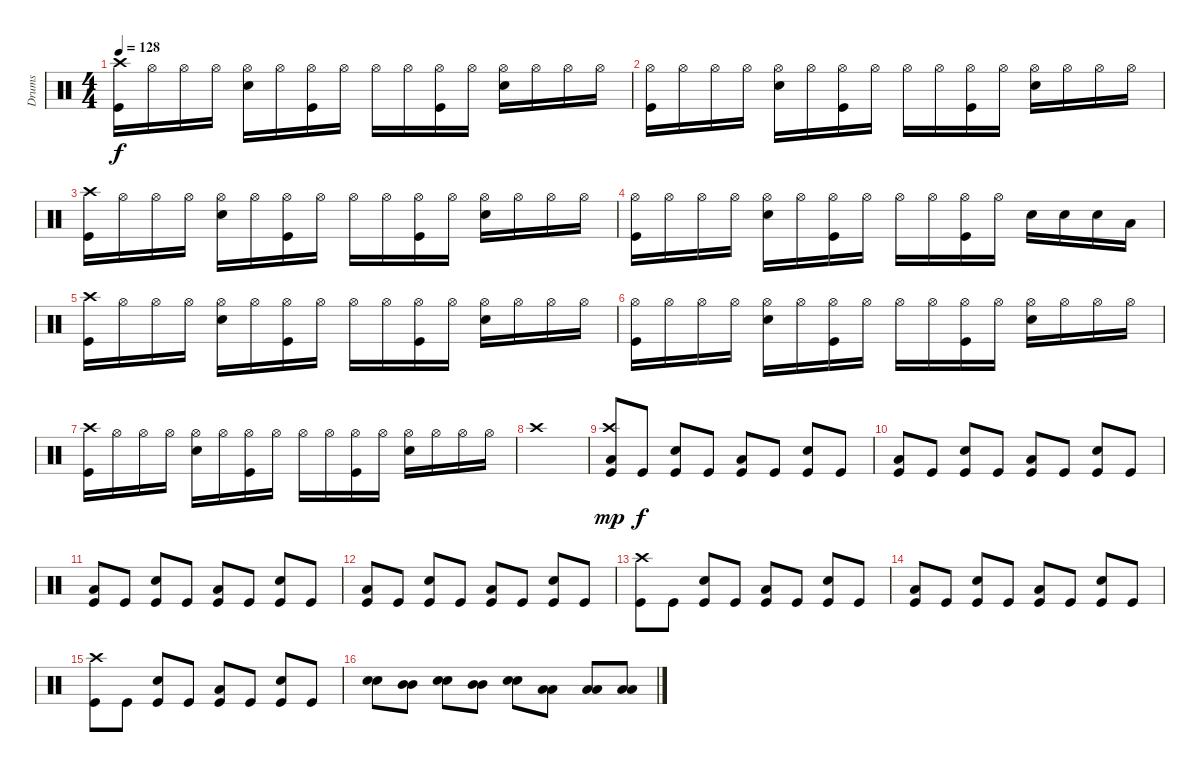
\track ("Drums" "Drums") {instrument percussion}
\staff {score}
\articulation defaults
\ts (4 4)
\tempo 128
\clef neutral
\ks c
("Kick (hit)" "Crash high (hit)").16{dy f} "Hi-Hat (open)".16 "Hi-Hat (open)".16 "Hi-Hat (open)".16 ("Snare (hit) 2" "Hi-Hat (open)").16 "Hi-Hat (open)".16 ("Kick (hit)" "Hi-Hat (open)").16 "Hi-Hat (open)".16 "Hi-Hat (open)".16 "Hi-Hat (open)".16 ("Kick (hit)" "Hi-Hat (open)").16 "Hi-Hat (open)".16 ("Snare (hit) 2" "Hi-Hat (open)").16 "Hi-Hat (open)".16 "Hi-Hat (open)".16 "Hi-Hat (open)".16 |
("Kick (hit)" "Hi-Hat (open)").16 "Hi-Hat (open)".16 "Hi-Hat (open)".16 "Hi-Hat (open)".16 ("Snare (hit) 2" "Hi-Hat (open)").16 "Hi-Hat (open)".16 ("Kick (hit)" "Hi-Hat (open)").16 "Hi-Hat (open)".16 "Hi-Hat (open)".16 "Hi-Hat (open)".16 ("Kick (hit)" "Hi-Hat (open)").16 "Hi-Hat (open)".16 ("Snare (hit) 2" "Hi-Hat (open)").16 "Hi-Hat (open)".16 "Hi-Hat (open)".16 "Hi-Hat (open)".16 |
("Kick (hit)" "Crash high (hit)").16 "Hi-Hat (open)".16 "Hi-Hat (open)".16 "Hi-Hat (open)".16 ("Snare (hit) 2" "Hi-Hat (open)").16 "Hi-Hat (open)".16 ("Kick (hit)" "Hi-Hat (open)").16 "Hi-Hat (open)".16 "Hi-Hat (open)".16 "Hi-Hat (open)".16 ("Kick (hit)" "Hi-Hat (open)").16 "Hi-Hat (open)".16 ("Snare (hit) 2" "Hi-Hat (open)").16 "Hi-Hat (open)".16 "Hi-Hat (open)".16 "Hi-Hat (open)".16 |
("Kick (hit)" "Hi-Hat (open)").16 "Hi-Hat (open)".16 "Hi-Hat (open)".16 "Hi-Hat (open)".16 ("Snare (hit) 2" "Hi-Hat (open)").16 "Hi-Hat (open)".16 ("Kick (hit)" "Hi-Hat (open)").16 "Hi-Hat (open)".16 "Hi-Hat (open)".16 "Hi-Hat (open)".16 ("Kick (hit)" "Hi-Hat (open)").16 "Hi-Hat (open)".16 "Snare (hit) 2".16 "Electric Snare (hit)".16 "Electric Snare (hit)".16 "Low Tom (hit)".16 |
("Kick (hit)" "Crash high (hit)").16 "Hi-Hat (open)".16 "Hi-Hat (open)".16 "Hi-Hat (open)".16 ("Snare (hit) 2" "Hi-Hat (open)").16 "Hi-Hat (open)".16 ("Kick (hit)" "Hi-Hat (open)").16 "Hi-Hat (open)".16 "Hi-Hat (open)".16 "Hi-Hat (open)".16 ("Kick (hit)" "Hi-Hat (open)").16 "Hi-Hat (open)".16 ("Snare (hit) 2" "Hi-Hat (open)").16 "Hi-Hat (open)".16 "Hi-Hat (open)".16 "Hi-Hat (open)".16 |
("Kick (hit)" "Hi-Hat (open)").16 "Hi-Hat (open)".16 "Hi-Hat (open)".16 "Hi-Hat (open)".16 ("Snare (hit) 2" "Hi-Hat (open)").16 "Hi-Hat (open)".16 ("Kick (hit)" "Hi-Hat (open)").16 "Hi-Hat (open)".16 "Hi-Hat (open)".16 "Hi-Hat (open)".16 ("Kick (hit)" "Hi-Hat (open)").16 "Hi-Hat (open)".16 ("Snare (hit) 2" "Hi-Hat (open)").16 "Hi-Hat (open)".16 "Hi-Hat (open)".16 "Hi-Hat (open)".16 |
("Kick (hit)" "Crash high (hit)").16 "Hi-Hat (open)".16 "Hi-Hat (open)".16 "Hi-Hat (open)".16 ("Snare (hit) 2" "Hi-Hat (open)").16 "Hi-Hat (open)".16 ("Kick (hit)" "Hi-Hat (open)").16 "Hi-Hat (open)".16 "Hi-Hat (open)".16 "Hi-Hat (open)".16 ("Kick (hit)" "Hi-Hat (open)").16 "Hi-Hat (open)".16 ("Snare (hit) 2" "Hi-Hat (open)").16 "Hi-Hat (open)".16 "Hi-Hat (open)".16 "Hi-Hat (open)".16 |
"Crash high (hit)".1 |
("Low Floor Tom (hit)" "Crash high (hit)" "Kick (hit)").8{dy mp} "Kick (hit)".8{dy f} ("Snare (hit) 2" "Kick (hit)").8 "Kick (hit)".8 ("Low Floor Tom (hit)" "Kick (hit)").8 "Kick (hit)".8 ("Snare (hit) 2" "Kick (hit)").8 "Kick (hit)".8 |
("Low Floor Tom (hit)" "Kick (hit)").8 "Kick (hit)".8 ("Snare (hit) 2" "Kick (hit)").8 "Kick (hit)".8 ("Low Floor Tom (hit)" "Kick (hit)").8 "Kick (hit)".8 ("Snare (hit) 2" "Kick (hit)").8 "Kick (hit)".8 |
("Low Floor Tom (hit)" "Kick (hit)").8 "Kick (hit)".8 ("Snare (hit) 2" "Kick (hit)").8 "Kick (hit)".8 ("Low Floor Tom (hit)" "Kick (hit)").8 "Kick (hit)".8 ("Snare (hit) 2" "Kick (hit)").8 "Kick (hit)".8 |
("Low Floor Tom (hit)" "Kick (hit)").8 "Kick (hit)".8 ("Snare (hit) 2" "Kick (hit)").8 "Kick (hit)".8 ("Low Floor Tom (hit)" "Kick (hit)").8 "Kick (hit)".8 ("Snare (hit) 2" "Kick (hit)").8 "Kick (hit)".8 |
("Crash high (hit)" "Kick (hit)").8 "Kick (hit)".8 ("Snare (hit) 2" "Kick (hit)").8 "Kick (hit)".8 ("Low Floor Tom (hit)" "Kick (hit)").8 "Kick (hit)".8 ("Snare (hit) 2" "Kick (hit)").8 "Kick (hit)".8 |
("Low Floor Tom (hit)" "Kick (hit)").8 "Kick (hit)".8 ("Snare (hit) 2" "Kick (hit)").8 "Kick (hit)".8 ("Low Floor Tom (hit)" "Kick (hit)").8 "Kick (hit)".8 ("Snare (hit) 2" "Kick (hit)").8 "Kick (hit)".8 |
("Crash high (hit)" "Kick (hit)").8 "Kick (hit)".8 ("Snare (hit) 2" "Kick (hit)").8 "Kick (hit)".8 ("Low Floor Tom (hit)" "Kick (hit)").8 "Kick (hit)".8 ("Snare (hit) 2" "Kick (hit)").8 "Kick (hit)".8 |
("Snare (hit) 2" "Snare (hit) 2").8 ("Mid Tom (hit)" "Mid Tom (hit)").8 ("Snare (hit) 2" "Snare (hit) 2").8 ("Mid Tom (hit)" "Mid Tom (hit)").8 ("Snare (hit) 2" "Snare (hit) 2").8 ("Low Tom (hit)" "Low Tom (hit)").8 ("Low Floor Tom (hit)" "Low Floor Tom (hit)").8 ("Low Floor Tom (hit)" "Low Floor Tom (hit)").8
